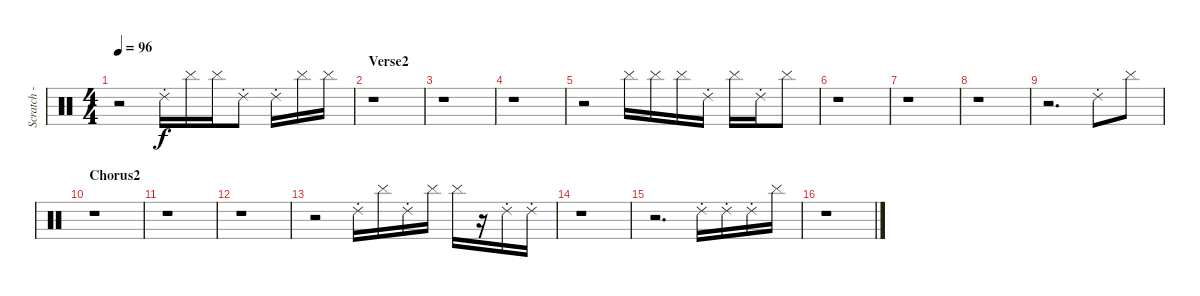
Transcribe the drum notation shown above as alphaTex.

\track ("Scratch - ???" "Scratch - ") {instrument percussion}
\staff {score}
\articulation defaults
\ts (4 4)
\tempo 96
\clef neutral
\ks c
r.2{dy f} "Ride (choke) 2".16 "Cymbal (hit)".16 "Cymbal (hit)".16 "Ride (choke) 2".8 "Ride (choke) 2".16 "Cymbal (hit)".16 "Cymbal (hit)".16 |
\section ("" "Verse2")
r.1 |
r.1 |
r.1 |
r.2 "Cymbal (hit)".16 "Cymbal (hit)".16 "Cymbal (hit)".16 "Ride (choke) 2".16 "Cymbal (hit)".16 "Ride (choke) 2".16 "Cymbal (hit)".8 |
r.1 |
r.1 |
r.1 |
r.2{d} "Ride (choke) 2".8 "Cymbal (hit)".8 |
\section ("" "Chorus2")
r.1 |
r.1 |
r.1 |
r.2 "Ride (choke) 2".16 "Cymbal (hit)".16 "Ride (choke) 2".16 "Cymbal (hit)".16 "Cymbal (hit)".16 r.16 "Ride (choke) 2".16 "Ride (choke) 2".16 |
r.1 |
r.2{d} "Ride (choke) 2".16 "Ride (choke) 2".16 "Ride (choke) 2".16 "Cymbal (hit)".16 |
r.1
